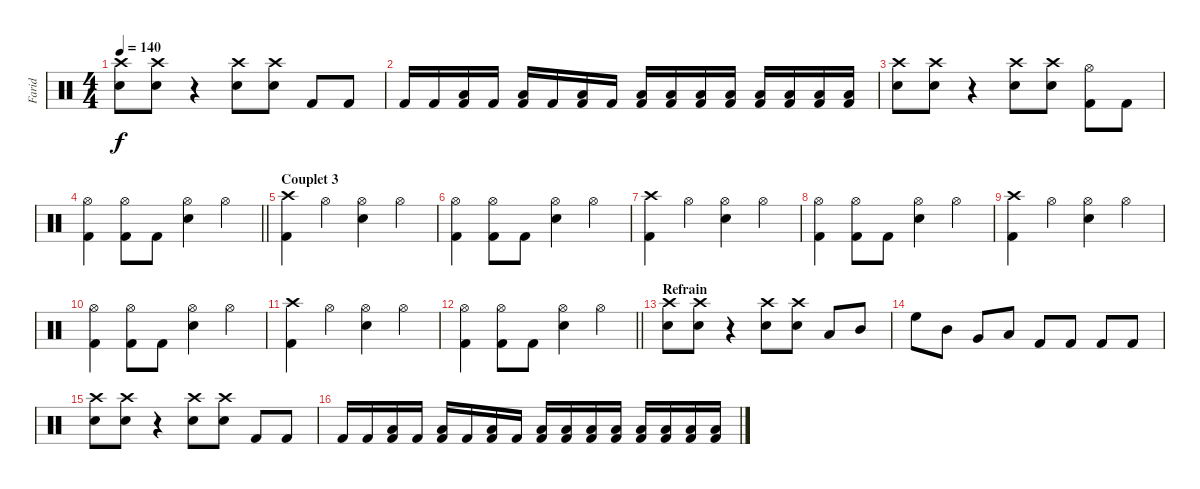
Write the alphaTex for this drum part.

\track ("Farid" "Farid") {instrument percussion}
\staff {score}
\articulation defaults
\ts (4 4)
\tempo 140
\clef neutral
\ks c
("Crash high (hit)" "Snare (hit) 2").8{dy f} ("Crash high (hit)" "Snare (hit) 2").8 r.4 ("Crash high (hit)" "Snare (hit) 2").8 ("Crash high (hit)" "Snare (hit) 2").8 "Kick (hit) 2".8 "Kick (hit) 2".8 |
"Kick (hit) 2".16 "Kick (hit) 2".16 ("Low Floor Tom (hit)" "Kick (hit) 2").16 "Kick (hit) 2".16 ("Low Floor Tom (hit)" "Kick (hit) 2").16 "Kick (hit) 2".16 ("Low Floor Tom (hit)" "Kick (hit) 2").16 "Kick (hit) 2".16 ("Low Floor Tom (hit)" "Kick (hit) 2").16 ("Low Floor Tom (hit)" "Kick (hit) 2").16 ("Low Floor Tom (hit)" "Kick (hit) 2").16 ("Low Floor Tom (hit)" "Kick (hit) 2").16 ("Low Floor Tom (hit)" "Kick (hit) 2").16 ("Low Floor Tom (hit)" "Kick (hit) 2").16 ("Low Floor Tom (hit)" "Kick (hit) 2").16 ("Low Floor Tom (hit)" "Kick (hit) 2").16 |
("Crash high (hit)" "Snare (hit) 2").8 ("Crash high (hit)" "Snare (hit) 2").8 r.4 ("Crash high (hit)" "Snare (hit) 2").8 ("Crash high (hit)" "Snare (hit) 2").8 ("Hi-Hat (open)" "Kick (hit) 2").8 "Kick (hit) 2".8 |
\barLineRight lightlight
("Hi-Hat (open)" "Kick (hit) 2").4 ("Hi-Hat (open)" "Kick (hit) 2").8 "Kick (hit) 2".8 ("Hi-Hat (open)" "Snare (hit) 2").4 "Hi-Hat (open)".4 |
\section ("" "Couplet 3")
("Crash high (hit)" "Kick (hit) 2").4 "Hi-Hat (open)".4 ("Hi-Hat (open)" "Snare (hit) 2").4 "Hi-Hat (open)".4 |
("Hi-Hat (open)" "Kick (hit) 2").4 ("Hi-Hat (open)" "Kick (hit) 2").8 "Kick (hit) 2".8 ("Hi-Hat (open)" "Snare (hit) 2").4 "Hi-Hat (open)".4 |
("Crash high (hit)" "Kick (hit) 2").4 "Hi-Hat (open)".4 ("Hi-Hat (open)" "Snare (hit) 2").4 "Hi-Hat (open)".4 |
("Hi-Hat (open)" "Kick (hit) 2").4 ("Hi-Hat (open)" "Kick (hit) 2").8 "Kick (hit) 2".8 ("Hi-Hat (open)" "Snare (hit) 2").4 "Hi-Hat (open)".4 |
("Crash high (hit)" "Kick (hit) 2").4 "Hi-Hat (open)".4 ("Hi-Hat (open)" "Snare (hit) 2").4 "Hi-Hat (open)".4 |
("Hi-Hat (open)" "Kick (hit) 2").4 ("Hi-Hat (open)" "Kick (hit) 2").8 "Kick (hit) 2".8 ("Hi-Hat (open)" "Snare (hit) 2").4 "Hi-Hat (open)".4 |
("Crash high (hit)" "Kick (hit) 2").4 "Hi-Hat (open)".4 ("Hi-Hat (open)" "Snare (hit) 2").4 "Hi-Hat (open)".4 |
\barLineRight lightlight
("Hi-Hat (open)" "Kick (hit) 2").4 ("Hi-Hat (open)" "Kick (hit) 2").8 "Kick (hit) 2".8 ("Hi-Hat (open)" "Snare (hit) 2").4 "Hi-Hat (open)".4 |
\section ("" "Refrain")
("Crash high (hit)" "Snare (hit) 2").8 ("Crash high (hit)" "Snare (hit) 2").8 r.4 ("Crash high (hit)" "Snare (hit) 2").8 ("Crash high (hit)" "Snare (hit) 2").8 "Low Tom (hit)".8 "Mid Tom (hit)".8 |
"High Floor Tom (hit)".8 "Mid Tom (hit)".8 "Very Low Tom (hit)".8 "Low Floor Tom (hit)".8 "Kick (hit) 2".8 "Kick (hit) 2".8 "Kick (hit) 2".8 "Kick (hit) 2".8 |
("Crash high (hit)" "Snare (hit) 2").8 ("Crash high (hit)" "Snare (hit) 2").8 r.4 ("Crash high (hit)" "Snare (hit) 2").8 ("Crash high (hit)" "Snare (hit) 2").8 "Kick (hit) 2".8 "Kick (hit) 2".8 |
"Kick (hit) 2".16 "Kick (hit) 2".16 ("Low Floor Tom (hit)" "Kick (hit) 2").16 "Kick (hit) 2".16 ("Low Floor Tom (hit)" "Kick (hit) 2").16 "Kick (hit) 2".16 ("Low Floor Tom (hit)" "Kick (hit) 2").16 "Kick (hit) 2".16 ("Low Floor Tom (hit)" "Kick (hit) 2").16 ("Low Floor Tom (hit)" "Kick (hit) 2").16 ("Low Floor Tom (hit)" "Kick (hit) 2").16 ("Low Floor Tom (hit)" "Kick (hit) 2").16 ("Low Floor Tom (hit)" "Kick (hit) 2").16 ("Low Floor Tom (hit)" "Kick (hit) 2").16 ("Low Floor Tom (hit)" "Kick (hit) 2").16 ("Low Floor Tom (hit)" "Kick (hit) 2").16
